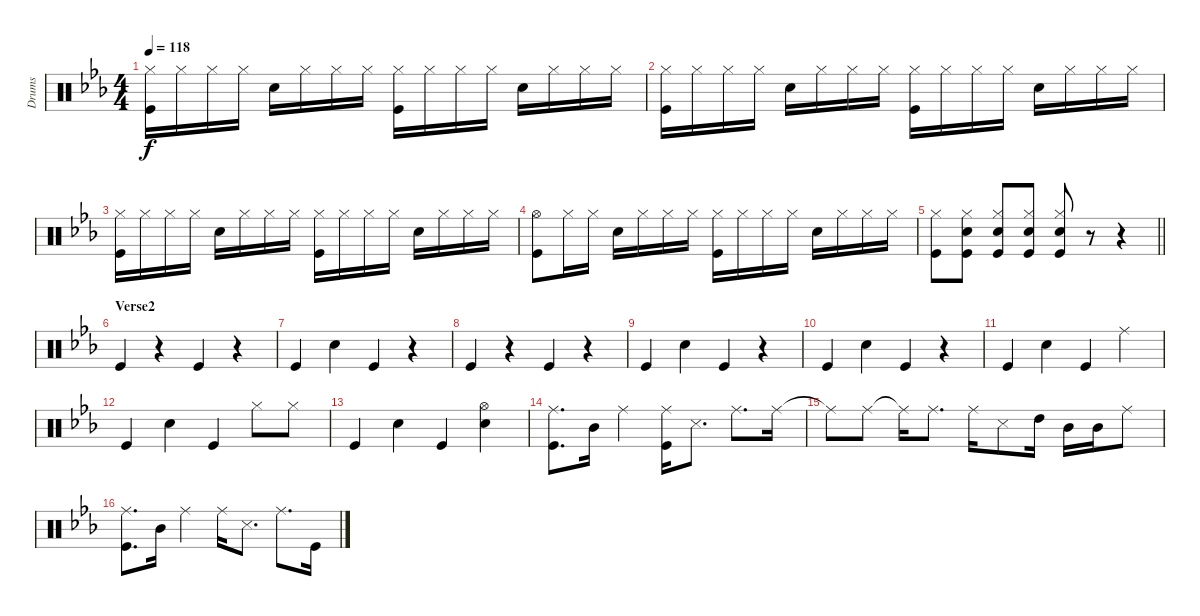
\track ("Drums" "Drums") {instrument percussion}
\staff {score}
\articulation defaults
\ts (4 4)
\tempo 118
\clef neutral
\ks eb
("Kick (hit)" "Hi-Hat (closed)").16{dy f} "Hi-Hat (closed)".16 "Hi-Hat (closed)".16 "Hi-Hat (closed)".16 "Snare (hit) 2".16 "Hi-Hat (closed)".16 "Hi-Hat (closed)".16 "Hi-Hat (closed)".16 ("Hi-Hat (closed)" "Kick (hit)").16 "Hi-Hat (closed)".16 "Hi-Hat (closed)".16 "Hi-Hat (closed)".16 "Snare (hit) 2".16 "Hi-Hat (closed)".16 "Hi-Hat (closed)".16 "Hi-Hat (closed)".16 |
("Kick (hit)" "Hi-Hat (closed)").16 "Hi-Hat (closed)".16 "Hi-Hat (closed)".16 "Hi-Hat (closed)".16 "Snare (hit) 2".16 "Hi-Hat (closed)".16 "Hi-Hat (closed)".16 "Hi-Hat (closed)".16 ("Hi-Hat (closed)" "Kick (hit)").16 "Hi-Hat (closed)".16 "Hi-Hat (closed)".16 "Hi-Hat (closed)".16 "Snare (hit) 2".16 "Hi-Hat (closed)".16 "Hi-Hat (closed)".16 "Hi-Hat (closed)".16 |
("Kick (hit)" "Hi-Hat (closed)").16 "Hi-Hat (closed)".16 "Hi-Hat (closed)".16 "Hi-Hat (closed)".16 "Snare (hit) 2".16 "Hi-Hat (closed)".16 "Hi-Hat (closed)".16 "Hi-Hat (closed)".16 ("Hi-Hat (closed)" "Kick (hit)").16 "Hi-Hat (closed)".16 "Hi-Hat (closed)".16 "Hi-Hat (closed)".16 "Snare (hit) 2".16 "Hi-Hat (closed)".16 "Hi-Hat (closed)".16 "Hi-Hat (closed)".16 |
("Hi-Hat (open)" "Kick (hit)").8 "Hi-Hat (closed)".16 "Hi-Hat (closed)".16 "Snare (hit) 2".16 "Hi-Hat (closed)".16 "Hi-Hat (closed)".16 "Hi-Hat (closed)".16 ("Hi-Hat (closed)" "Kick (hit)").16 "Hi-Hat (closed)".16 "Hi-Hat (closed)".16 "Hi-Hat (closed)".16 "Snare (hit) 2".16 "Hi-Hat (closed)".16 "Hi-Hat (closed)".16 "Hi-Hat (closed)".16 |
\barLineRight lightlight
("Hi-Hat (closed)" "Kick (hit)").8 ("Kick (hit)" "Snare (hit) 2" "Hi-Hat (closed)").8 ("Hi-Hat (closed)" "Kick (hit)" "Snare (hit) 2").8 ("Kick (hit)" "Hi-Hat (closed)" "Snare (hit) 2").8 ("Hi-Hat (closed)" "Kick (hit)" "Snare (hit) 2").8 r.8 r.4 |
\section ("" "Verse2")
"Kick (hit)".4 r.4 "Kick (hit)".4 r.4 |
"Kick (hit)".4 "Snare (hit) 2".4 "Kick (hit)".4 r.4 |
"Kick (hit)".4 r.4 "Kick (hit)".4 r.4 |
"Kick (hit)".4 "Snare (hit) 2".4 "Kick (hit)".4 r.4 |
"Kick (hit)".4 "Snare (hit) 2".4 "Kick (hit)".4 r.4 |
"Kick (hit)".4 "Snare (hit) 2".4 "Kick (hit)".4 "Ride (middle)".4 |
"Kick (hit)".4 "Snare (hit) 2".4 "Kick (hit)".4 "Hi-Hat (closed)".8 "Hi-Hat (closed)".8 |
"Kick (hit)".4 "Snare (hit) 2".4 "Kick (hit)".4 ("Snare (hit) 2" "Hi-Hat (open)").4 |
("Ride (middle)" "Kick (hit)").8{d} "Mid Tom (hit)".16 "Ride (middle)".4 ("Ride (middle)" "Kick (hit)").16 "Snare (side stick) 3".8{d} "Ride (middle)".8{d} "Ride (middle)".16 |
"Ride (middle)"{t}.8 "Ride (middle)".8 "Ride (middle)"{t}.16 "Ride (middle)".8{d} "Ride (middle)".16 "Snare (side stick) 3".8 "High Tom (hit)".16 "Mid Tom (hit)".16 "Mid Tom (hit)".16 "Ride (middle)".8 |
("Ride (middle)" "Kick (hit)").8{d} "Mid Tom (hit)".16 "Ride (middle)".4 "Ride (middle)".16 "Snare (side stick) 3".8{d} "Ride (middle)".8{d} "Kick (hit)".16
